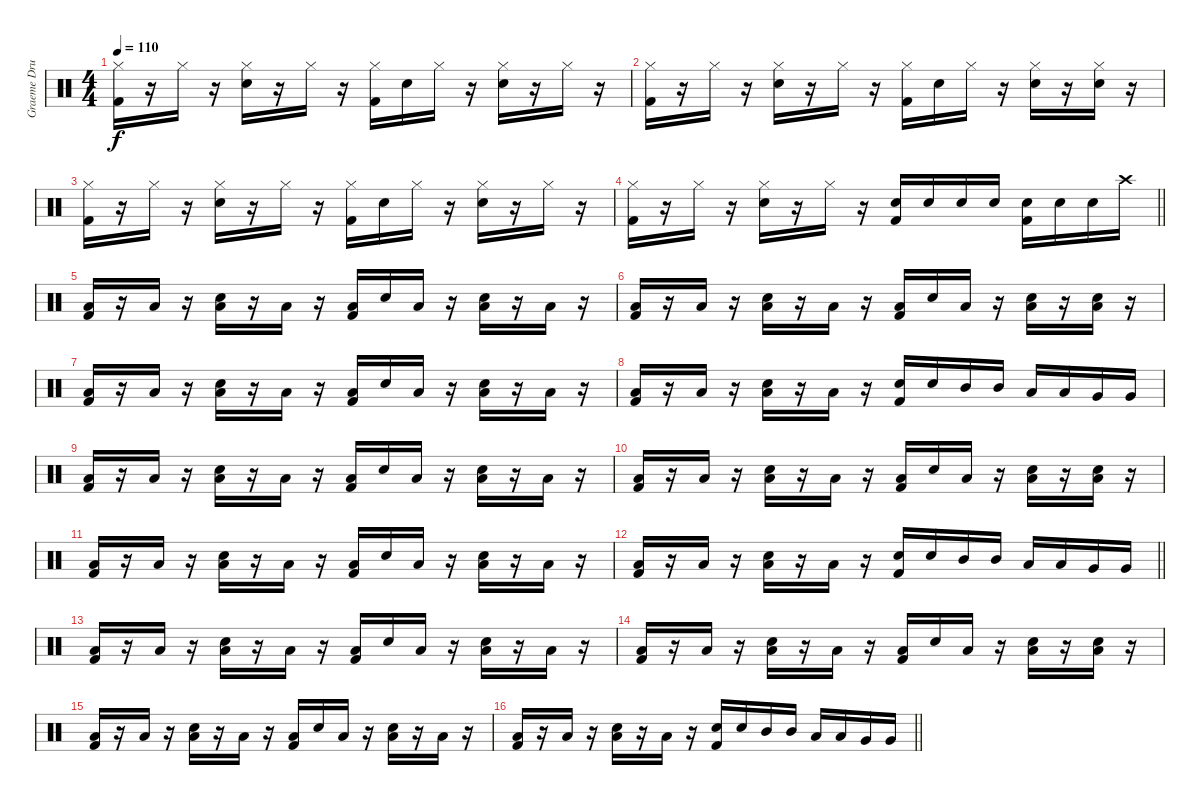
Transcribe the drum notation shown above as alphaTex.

\track ("Graeme Drums" "Graeme Dru") {instrument percussion}
\staff {score}
\articulation defaults
\ts (4 4)
\tempo 110
\clef neutral
\ks c
("Kick (hit) 2" "Hi-Hat (closed)").16{dy f} r.16 "Hi-Hat (closed)".16 r.16 ("Hi-Hat (closed)" "Snare (hit) 2").16 r.16 "Hi-Hat (closed)".16 r.16 ("Kick (hit) 2" "Hi-Hat (closed)").16 "Snare (hit) 2".16 "Hi-Hat (closed)".16 r.16 ("Hi-Hat (closed)" "Snare (hit) 2").16 r.16 "Hi-Hat (closed)".16 r.16 |
("Kick (hit) 2" "Hi-Hat (closed)").16 r.16 "Hi-Hat (closed)".16 r.16 ("Hi-Hat (closed)" "Snare (hit) 2").16 r.16 "Hi-Hat (closed)".16 r.16 ("Kick (hit) 2" "Hi-Hat (closed)").16 "Snare (hit) 2".16 "Hi-Hat (closed)".16 r.16 ("Hi-Hat (closed)" "Snare (hit) 2").16 r.16 ("Hi-Hat (closed)" "Snare (hit) 2").16 r.16 |
("Kick (hit) 2" "Hi-Hat (closed)").16 r.16 "Hi-Hat (closed)".16 r.16 ("Hi-Hat (closed)" "Snare (hit) 2").16 r.16 "Hi-Hat (closed)".16 r.16 ("Kick (hit) 2" "Hi-Hat (closed)").16 "Snare (hit) 2".16 "Hi-Hat (closed)".16 r.16 ("Hi-Hat (closed)" "Snare (hit) 2").16 r.16 "Hi-Hat (closed)".16 r.16 |
\barLineRight lightlight
("Kick (hit) 2" "Hi-Hat (closed)").16 r.16 "Hi-Hat (closed)".16 r.16 ("Hi-Hat (closed)" "Snare (hit) 2").16 r.16 "Hi-Hat (closed)".16 r.16 ("Kick (hit) 2" "Snare (hit) 2").16 "Snare (hit) 2".16 "Snare (hit) 2".16 "Snare (hit) 2".16 ("Kick (hit) 2" "Snare (hit) 2").16 "Snare (hit) 2".16 "Snare (hit) 2".16 "Crash high (hit)".16 |
("Kick (hit) 2" "Low Tom (hit)").16 r.16 "Low Tom (hit)".16 r.16 ("Low Tom (hit)" "Snare (hit) 2").16 r.16 "Low Tom (hit)".16 r.16 ("Kick (hit) 2" "Low Tom (hit)").16 "Snare (hit) 2".16 "Low Tom (hit)".16 r.16 ("Low Tom (hit)" "Snare (hit) 2").16 r.16 "Low Tom (hit)".16 r.16 |
("Kick (hit) 2" "Low Tom (hit)").16 r.16 "Low Tom (hit)".16 r.16 ("Low Tom (hit)" "Snare (hit) 2").16 r.16 "Low Tom (hit)".16 r.16 ("Kick (hit) 2" "Low Tom (hit)").16 "Snare (hit) 2".16 "Low Tom (hit)".16 r.16 ("Low Tom (hit)" "Snare (hit) 2").16 r.16 ("Low Tom (hit)" "Snare (hit) 2").16 r.16 |
("Kick (hit) 2" "Low Tom (hit)").16 r.16 "Low Tom (hit)".16 r.16 ("Low Tom (hit)" "Snare (hit) 2").16 r.16 "Low Tom (hit)".16 r.16 ("Kick (hit) 2" "Low Tom (hit)").16 "Snare (hit) 2".16 "Low Tom (hit)".16 r.16 ("Low Tom (hit)" "Snare (hit) 2").16 r.16 "Low Tom (hit)".16 r.16 |
("Kick (hit) 2" "Low Tom (hit)").16 r.16 "Low Tom (hit)".16 r.16 ("Low Tom (hit)" "Snare (hit) 2").16 r.16 "Low Tom (hit)".16 r.16 ("Kick (hit) 2" "Snare (hit) 2").16 "Snare (hit) 2".16 "Mid Tom (hit)".16 "Mid Tom (hit)".16 "Low Tom (hit)".16 "Low Tom (hit)".16 "Very Low Tom (hit)".16 "Very Low Tom (hit)".16 |
("Kick (hit) 2" "Low Tom (hit)").16 r.16 "Low Tom (hit)".16 r.16 ("Low Tom (hit)" "Snare (hit) 2").16 r.16 "Low Tom (hit)".16 r.16 ("Kick (hit) 2" "Low Tom (hit)").16 "Snare (hit) 2".16 "Low Tom (hit)".16 r.16 ("Low Tom (hit)" "Snare (hit) 2").16 r.16 "Low Tom (hit)".16 r.16 |
("Kick (hit) 2" "Low Tom (hit)").16 r.16 "Low Tom (hit)".16 r.16 ("Low Tom (hit)" "Snare (hit) 2").16 r.16 "Low Tom (hit)".16 r.16 ("Kick (hit) 2" "Low Tom (hit)").16 "Snare (hit) 2".16 "Low Tom (hit)".16 r.16 ("Low Tom (hit)" "Snare (hit) 2").16 r.16 ("Low Tom (hit)" "Snare (hit) 2").16 r.16 |
("Kick (hit) 2" "Low Tom (hit)").16 r.16 "Low Tom (hit)".16 r.16 ("Low Tom (hit)" "Snare (hit) 2").16 r.16 "Low Tom (hit)".16 r.16 ("Kick (hit) 2" "Low Tom (hit)").16 "Snare (hit) 2".16 "Low Tom (hit)".16 r.16 ("Low Tom (hit)" "Snare (hit) 2").16 r.16 "Low Tom (hit)".16 r.16 |
\barLineRight lightlight
("Kick (hit) 2" "Low Tom (hit)").16 r.16 "Low Tom (hit)".16 r.16 ("Low Tom (hit)" "Snare (hit) 2").16 r.16 "Low Tom (hit)".16 r.16 ("Kick (hit) 2" "Snare (hit) 2").16 "Snare (hit) 2".16 "Mid Tom (hit)".16 "Mid Tom (hit)".16 "Low Tom (hit)".16 "Low Tom (hit)".16 "Very Low Tom (hit)".16 "Very Low Tom (hit)".16 |
("Kick (hit) 2" "Low Tom (hit)").16 r.16 "Low Tom (hit)".16 r.16 ("Low Tom (hit)" "Snare (hit) 2").16 r.16 "Low Tom (hit)".16 r.16 ("Kick (hit) 2" "Low Tom (hit)").16 "Snare (hit) 2".16 "Low Tom (hit)".16 r.16 ("Low Tom (hit)" "Snare (hit) 2").16 r.16 "Low Tom (hit)".16 r.16 |
("Kick (hit) 2" "Low Tom (hit)").16 r.16 "Low Tom (hit)".16 r.16 ("Low Tom (hit)" "Snare (hit) 2").16 r.16 "Low Tom (hit)".16 r.16 ("Kick (hit) 2" "Low Tom (hit)").16 "Snare (hit) 2".16 "Low Tom (hit)".16 r.16 ("Low Tom (hit)" "Snare (hit) 2").16 r.16 ("Low Tom (hit)" "Snare (hit) 2").16 r.16 |
("Kick (hit) 2" "Low Tom (hit)").16 r.16 "Low Tom (hit)".16 r.16 ("Low Tom (hit)" "Snare (hit) 2").16 r.16 "Low Tom (hit)".16 r.16 ("Kick (hit) 2" "Low Tom (hit)").16 "Snare (hit) 2".16 "Low Tom (hit)".16 r.16 ("Low Tom (hit)" "Snare (hit) 2").16 r.16 "Low Tom (hit)".16 r.16 |
\barLineRight lightlight
("Kick (hit) 2" "Low Tom (hit)").16 r.16 "Low Tom (hit)".16 r.16 ("Low Tom (hit)" "Snare (hit) 2").16 r.16 "Low Tom (hit)".16 r.16 ("Kick (hit) 2" "Snare (hit) 2").16 "Snare (hit) 2".16 "Mid Tom (hit)".16 "Mid Tom (hit)".16 "Low Tom (hit)".16 "Low Tom (hit)".16 "Very Low Tom (hit)".16 "Very Low Tom (hit)".16
